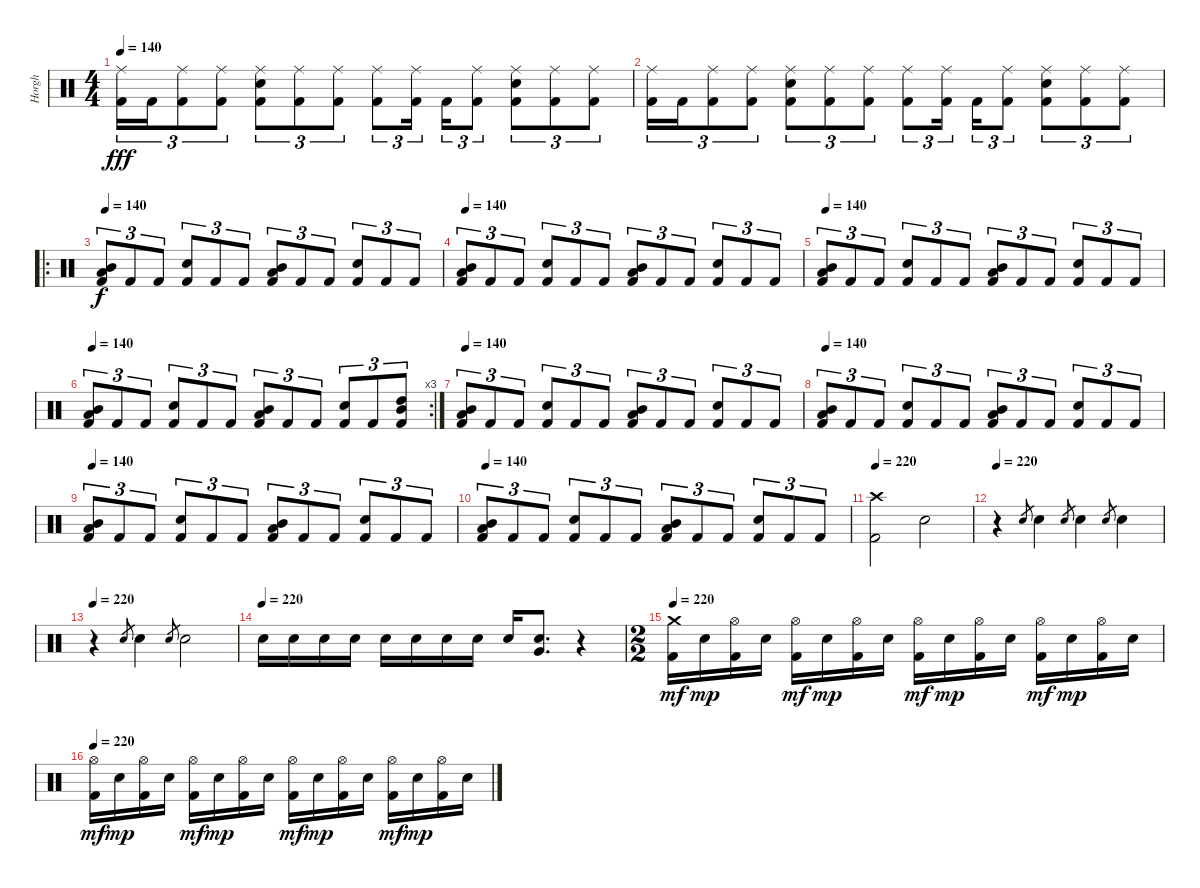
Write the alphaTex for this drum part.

\track ("Horgh" "Horgh") {instrument percussion}
\staff {score}
\articulation defaults
\ts (4 4)
\tempo 140
\clef neutral
\ks c
("Ride (middle)" "Kick (hit) 2").16{tu (3 2) dy fff} "Kick (hit) 2".16{tu (3 2)} ("Ride (middle)" "Kick (hit) 2").8{tu (3 2)} ("Ride (middle)" "Kick (hit) 2").8{tu (3 2)} ("Ride (middle)" "Electric Snare (hit)" "Kick (hit) 2").8{tu (3 2)} ("Ride (middle)" "Kick (hit) 2").8{tu (3 2)} ("Ride (middle)" "Kick (hit) 2").8{tu (3 2)} ("Ride (middle)" "Kick (hit) 2").8{tu (3 2)} ("Ride (middle)" "Kick (hit) 2").16{tu (3 2)} "Kick (hit) 2".16{tu (3 2)} ("Ride (middle)" "Kick (hit) 2").8{tu (3 2)} ("Ride (middle)" "Electric Snare (hit)" "Kick (hit) 2").8{tu (3 2)} ("Ride (middle)" "Kick (hit) 2").8{tu (3 2)} ("Ride (middle)" "Kick (hit) 2").8{tu (3 2)} |
("Ride (middle)" "Kick (hit) 2").16{tu (3 2)} "Kick (hit) 2".16{tu (3 2)} ("Ride (middle)" "Kick (hit) 2").8{tu (3 2)} ("Ride (middle)" "Kick (hit) 2").8{tu (3 2)} ("Ride (middle)" "Electric Snare (hit)" "Kick (hit) 2").8{tu (3 2)} ("Ride (middle)" "Kick (hit) 2").8{tu (3 2)} ("Ride (middle)" "Kick (hit) 2").8{tu (3 2)} ("Ride (middle)" "Kick (hit) 2").8{tu (3 2)} ("Ride (middle)" "Kick (hit) 2").16{tu (3 2)} "Kick (hit) 2".16{tu (3 2)} ("Ride (middle)" "Kick (hit) 2").8{tu (3 2)} ("Ride (middle)" "Electric Snare (hit)" "Kick (hit) 2").8{tu (3 2)} ("Ride (middle)" "Kick (hit) 2").8{tu (3 2)} ("Ride (middle)" "Kick (hit) 2").8{tu (3 2)} |
\ro
\tempo 140
("Low Tom (hit)" "Mid Tom (hit)" "Kick (hit) 2").8{tu (3 2) dy f} "Kick (hit) 2".8{tu (3 2)} "Kick (hit) 2".8{tu (3 2)} ("Electric Snare (hit)" "Kick (hit) 2").8{tu (3 2)} "Kick (hit) 2".8{tu (3 2)} "Kick (hit) 2".8{tu (3 2)} ("Low Tom (hit)" "Mid Tom (hit)" "Kick (hit) 2").8{tu (3 2)} "Kick (hit) 2".8{tu (3 2)} "Kick (hit) 2".8{tu (3 2)} ("Electric Snare (hit)" "Kick (hit) 2").8{tu (3 2)} "Kick (hit) 2".8{tu (3 2)} "Kick (hit) 2".8{tu (3 2)} |
\tempo 140
("Low Tom (hit)" "Mid Tom (hit)" "Kick (hit) 2").8{tu (3 2)} "Kick (hit) 2".8{tu (3 2)} "Kick (hit) 2".8{tu (3 2)} ("Electric Snare (hit)" "Kick (hit) 2").8{tu (3 2)} "Kick (hit) 2".8{tu (3 2)} "Kick (hit) 2".8{tu (3 2)} ("Low Tom (hit)" "Mid Tom (hit)" "Kick (hit) 2").8{tu (3 2)} "Kick (hit) 2".8{tu (3 2)} "Kick (hit) 2".8{tu (3 2)} ("Electric Snare (hit)" "Kick (hit) 2").8{tu (3 2)} "Kick (hit) 2".8{tu (3 2)} "Kick (hit) 2".8{tu (3 2)} |
\tempo 140
("Low Tom (hit)" "Mid Tom (hit)" "Kick (hit) 2").8{tu (3 2)} "Kick (hit) 2".8{tu (3 2)} "Kick (hit) 2".8{tu (3 2)} ("Electric Snare (hit)" "Kick (hit) 2").8{tu (3 2)} "Kick (hit) 2".8{tu (3 2)} "Kick (hit) 2".8{tu (3 2)} ("Low Tom (hit)" "Mid Tom (hit)" "Kick (hit) 2").8{tu (3 2)} "Kick (hit) 2".8{tu (3 2)} "Kick (hit) 2".8{tu (3 2)} ("Electric Snare (hit)" "Kick (hit) 2").8{tu (3 2)} "Kick (hit) 2".8{tu (3 2)} "Kick (hit) 2".8{tu (3 2)} |
\rc 3
\tempo 140
("Low Tom (hit)" "Mid Tom (hit)" "Kick (hit) 2").8{tu (3 2)} "Kick (hit) 2".8{tu (3 2)} "Kick (hit) 2".8{tu (3 2)} ("Electric Snare (hit)" "Kick (hit) 2").8{tu (3 2)} "Kick (hit) 2".8{tu (3 2)} "Kick (hit) 2".8{tu (3 2)} ("Low Tom (hit)" "Mid Tom (hit)" "Kick (hit) 2").8{tu (3 2)} "Kick (hit) 2".8{tu (3 2)} "Kick (hit) 2".8{tu (3 2)} ("Electric Snare (hit)" "Kick (hit) 2").8{tu (3 2)} "Kick (hit) 2".8{tu (3 2)} ("High Tom (hit)" "Mid Tom (hit)" "Kick (hit) 2").8{tu (3 2)} |
\tempo 140
("Low Tom (hit)" "Mid Tom (hit)" "Kick (hit) 2").8{tu (3 2)} "Kick (hit) 2".8{tu (3 2)} "Kick (hit) 2".8{tu (3 2)} ("Electric Snare (hit)" "Kick (hit) 2").8{tu (3 2)} "Kick (hit) 2".8{tu (3 2)} "Kick (hit) 2".8{tu (3 2)} ("Low Tom (hit)" "Mid Tom (hit)" "Kick (hit) 2").8{tu (3 2)} "Kick (hit) 2".8{tu (3 2)} "Kick (hit) 2".8{tu (3 2)} ("Electric Snare (hit)" "Kick (hit) 2").8{tu (3 2)} "Kick (hit) 2".8{tu (3 2)} "Kick (hit) 2".8{tu (3 2)} |
\tempo 140
("Low Tom (hit)" "Mid Tom (hit)" "Kick (hit) 2").8{tu (3 2)} "Kick (hit) 2".8{tu (3 2)} "Kick (hit) 2".8{tu (3 2)} ("Electric Snare (hit)" "Kick (hit) 2").8{tu (3 2)} "Kick (hit) 2".8{tu (3 2)} "Kick (hit) 2".8{tu (3 2)} ("Low Tom (hit)" "Mid Tom (hit)" "Kick (hit) 2").8{tu (3 2)} "Kick (hit) 2".8{tu (3 2)} "Kick (hit) 2".8{tu (3 2)} ("Electric Snare (hit)" "Kick (hit) 2").8{tu (3 2)} "Kick (hit) 2".8{tu (3 2)} "Kick (hit) 2".8{tu (3 2)} |
\tempo 140
("Low Tom (hit)" "Mid Tom (hit)" "Kick (hit) 2").8{tu (3 2)} "Kick (hit) 2".8{tu (3 2)} "Kick (hit) 2".8{tu (3 2)} ("Electric Snare (hit)" "Kick (hit) 2").8{tu (3 2)} "Kick (hit) 2".8{tu (3 2)} "Kick (hit) 2".8{tu (3 2)} ("Low Tom (hit)" "Mid Tom (hit)" "Kick (hit) 2").8{tu (3 2)} "Kick (hit) 2".8{tu (3 2)} "Kick (hit) 2".8{tu (3 2)} ("Electric Snare (hit)" "Kick (hit) 2").8{tu (3 2)} "Kick (hit) 2".8{tu (3 2)} "Kick (hit) 2".8{tu (3 2)} |
\tempo 140
("Low Tom (hit)" "Mid Tom (hit)" "Kick (hit) 2").8{tu (3 2)} "Kick (hit) 2".8{tu (3 2)} "Kick (hit) 2".8{tu (3 2)} ("Electric Snare (hit)" "Kick (hit) 2").8{tu (3 2)} "Kick (hit) 2".8{tu (3 2)} "Kick (hit) 2".8{tu (3 2)} ("Low Tom (hit)" "Mid Tom (hit)" "Kick (hit) 2").8{tu (3 2)} "Kick (hit) 2".8{tu (3 2)} "Kick (hit) 2".8{tu (3 2)} ("Electric Snare (hit)" "Kick (hit) 2").8{tu (3 2)} "Kick (hit) 2".8{tu (3 2)} "Kick (hit) 2".8{tu (3 2)} |
\tempo 220
("Crash high (hit)" "Kick (hit) 2").2 "Electric Snare (hit)".2 |
\tempo 220
r.4 "Electric Snare (hit)".8{gr} "Electric Snare (hit)".4 "Electric Snare (hit)".8{gr} "Electric Snare (hit)".4 "Electric Snare (hit)".8{gr} "Electric Snare (hit)".4 |
\tempo 220
r.4 "Electric Snare (hit)".8{gr} "Electric Snare (hit)".4 "Electric Snare (hit)".8{gr} "Electric Snare (hit)".2 |
\tempo (220)
"Electric Snare (hit)".16 "Electric Snare (hit)".16 "Electric Snare (hit)".16 "Electric Snare (hit)".16 "Electric Snare (hit)".16 "Electric Snare (hit)".16 "Electric Snare (hit)".16 "Electric Snare (hit)".16 "Electric Snare (hit)".16 ("Electric Snare (hit)" "Very Low Tom (hit)").8{d} r.4 |
\ts (2 2)
\tempo 220
("Crash medium (hit)" "Kick (hit) 2").16{dy mf} "Electric Snare (hit)".16{dy mp} ("Hi-Hat (open)" "Kick (hit) 2").16 "Electric Snare (hit)".16 ("Hi-Hat (open)" "Kick (hit) 2").16{dy mf} "Electric Snare (hit)".16{dy mp} ("Hi-Hat (open)" "Kick (hit) 2").16 "Electric Snare (hit)".16 ("Hi-Hat (open)" "Kick (hit) 2").16{dy mf} "Electric Snare (hit)".16{dy mp} ("Hi-Hat (open)" "Kick (hit) 2").16 "Electric Snare (hit)".16 ("Hi-Hat (open)" "Kick (hit) 2").16{dy mf} "Electric Snare (hit)".16{dy mp} ("Hi-Hat (open)" "Kick (hit) 2").16 "Electric Snare (hit)".16 |
\tempo 220
("Hi-Hat (open)" "Kick (hit) 2").16{dy mf} "Electric Snare (hit)".16{dy mp} ("Hi-Hat (open)" "Kick (hit) 2").16 "Electric Snare (hit)".16 ("Hi-Hat (open)" "Kick (hit) 2").16{dy mf} "Electric Snare (hit)".16{dy mp} ("Hi-Hat (open)" "Kick (hit) 2").16 "Electric Snare (hit)".16 ("Hi-Hat (open)" "Kick (hit) 2").16{dy mf} "Electric Snare (hit)".16{dy mp} ("Hi-Hat (open)" "Kick (hit) 2").16 "Electric Snare (hit)".16 ("Hi-Hat (open)" "Kick (hit) 2").16{dy mf} "Electric Snare (hit)".16{dy mp} ("Hi-Hat (open)" "Kick (hit) 2").16 "Electric Snare (hit)".16
